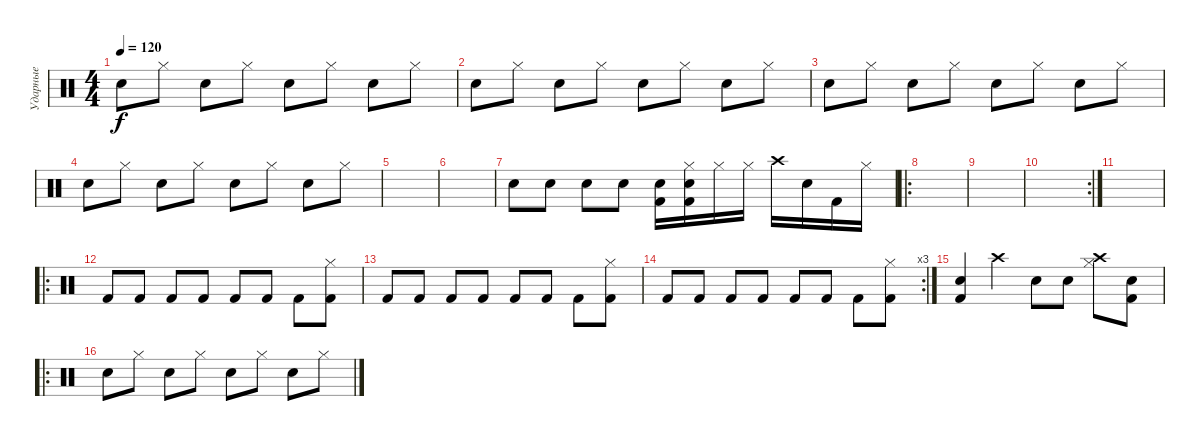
\track ("Ударные" "Ударные") {instrument percussion}
\staff {score}
\articulation defaults
\ts (4 4)
\tempo 120
\clef neutral
\ks c "Snare (hit) 2".8{dy f} "Hi-Hat (closed)".8 "Snare (hit) 2".8 "Hi-Hat (closed)".8 "Snare (hit) 2".8 "Hi-Hat (closed)".8 "Snare (hit) 2".8 "Hi-Hat (closed)".8
|
"Snare (hit) 2".8 "Hi-Hat (closed)".8 "Snare (hit) 2".8 "Hi-Hat (closed)".8 "Snare (hit) 2".8 "Hi-Hat (closed)".8 "Snare (hit) 2".8 "Hi-Hat (closed)".8 |
"Snare (hit) 2".8 "Hi-Hat (closed)".8 "Snare (hit) 2".8 "Hi-Hat (closed)".8 "Snare (hit) 2".8 "Hi-Hat (closed)".8 "Snare (hit) 2".8 "Hi-Hat (closed)".8 |
"Snare (hit) 2".8 "Hi-Hat (closed)".8 "Snare (hit) 2".8 "Hi-Hat (closed)".8 "Snare (hit) 2".8 "Hi-Hat (closed)".8 "Snare (hit) 2".8 "Hi-Hat (closed)".8 |
|
|
"Snare (hit) 2".8 "Snare (hit) 2".8 "Snare (hit) 2".8 "Snare (hit) 2".8 ("Kick (hit) 2" "Snare (hit) 2").16 ("Kick (hit) 2" "Snare (hit) 2" "Hi-Hat (closed)").16 "Hi-Hat (closed)".16 "Hi-Hat (closed)".16 "Crash high (hit)".16 "Snare (hit) 2".16 "Kick (hit) 2".16 "Hi-Hat (closed)".16 |
\ro
|
|
\rc 2
|
|
\ro "Kick (hit) 2".8 "Kick (hit) 2".8 "Kick (hit) 2".8 "Kick (hit) 2".8 "Kick (hit) 2".8 "Kick (hit) 2".8 "Kick (hit) 2".8
("Hi-Hat (closed)" "Kick (hit) 2").8 |
"Kick (hit) 2".8 "Kick (hit) 2".8 "Kick (hit) 2".8 "Kick (hit) 2".8 "Kick (hit) 2".8 "Kick (hit) 2".8 "Kick (hit) 2".8 ("Hi-Hat (closed)" "Kick (hit) 2").8 |
\rc 3 "Kick (hit) 2".8 "Kick (hit) 2".8 "Kick (hit) 2".8 "Kick (hit) 2".8 "Kick (hit) 2".8 "Kick (hit) 2".8 "Kick (hit) 2".8
("Hi-Hat (closed)" "Kick (hit) 2").8 |
("Snare (hit) 2" "Kick (hit) 2").4 "Crash high (hit)".4 "Snare (hit) 2".8 "Snare (hit) 2".8 ("Crash high (hit)" "Hi-Hat (closed)").8 ("Snare (hit) 2" "Kick (hit) 2").8 |
\ro "Snare (hit) 2".8 "Hi-Hat (closed)".8 "Snare (hit) 2".8 "Hi-Hat (closed)".8 "Snare (hit) 2".8 "Hi-Hat (closed)".8 "Snare (hit) 2".8 "Hi-Hat (closed)".8
